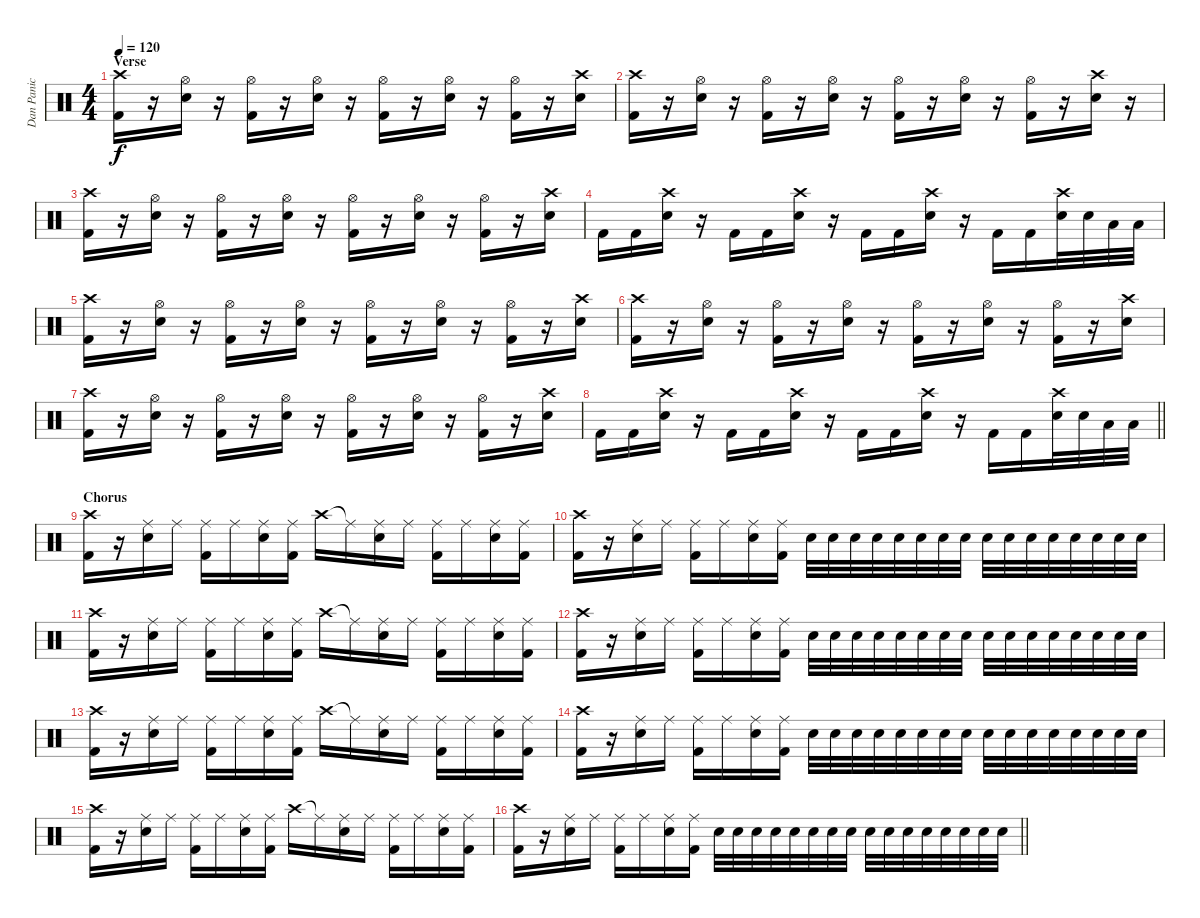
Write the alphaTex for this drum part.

\track ("Dan Panic" "Dan Panic") {instrument percussion}
\staff {score}
\articulation defaults
\ts (4 4)
\section ("" "Verse")
\tempo 120
\clef neutral
\ks c
("Crash high (hit)" "Kick (hit) 2").16{dy f} r.16 ("Hi-Hat (open)" "Electric Snare (hit)").16 r.16 ("Hi-Hat (open)" "Kick (hit) 2").16 r.16 ("Hi-Hat (open)" "Electric Snare (hit)").16 r.16 ("Hi-Hat (open)" "Kick (hit) 2").16 r.16 ("Hi-Hat (open)" "Electric Snare (hit)").16 r.16 ("Hi-Hat (open)" "Kick (hit) 2").16 r.16 ("Crash high (hit)" "Electric Snare (hit)").16 |
("Crash high (hit)" "Kick (hit) 2").16 r.16 ("Hi-Hat (open)" "Electric Snare (hit)").16 r.16 ("Hi-Hat (open)" "Kick (hit) 2").16 r.16 ("Hi-Hat (open)" "Electric Snare (hit)").16 r.16 ("Hi-Hat (open)" "Kick (hit) 2").16 r.16 ("Hi-Hat (open)" "Electric Snare (hit)").16 r.16 ("Hi-Hat (open)" "Kick (hit) 2").16 r.16 ("Crash high (hit)" "Electric Snare (hit)").16 r.16 |
("Crash high (hit)" "Kick (hit) 2").16 r.16 ("Hi-Hat (open)" "Electric Snare (hit)").16 r.16 ("Hi-Hat (open)" "Kick (hit) 2").16 r.16 ("Hi-Hat (open)" "Electric Snare (hit)").16 r.16 ("Hi-Hat (open)" "Kick (hit) 2").16 r.16 ("Hi-Hat (open)" "Electric Snare (hit)").16 r.16 ("Hi-Hat (open)" "Kick (hit) 2").16 r.16 ("Crash high (hit)" "Electric Snare (hit)").16 |
"Kick (hit) 2".16 "Kick (hit) 2".16 ("Crash high (hit)" "Electric Snare (hit)").16 r.16 "Kick (hit) 2".16 "Kick (hit) 2".16 ("Crash high (hit)" "Electric Snare (hit)").16 r.16 "Kick (hit) 2".16 "Kick (hit) 2".16 ("Crash high (hit)" "Electric Snare (hit)").16 r.16 "Kick (hit) 2".16 "Kick (hit) 2".16 ("Crash high (hit)" "Electric Snare (hit)").32 "Electric Snare (hit)".32 "Low Tom (hit)".32 "Low Tom (hit)".32 |
("Crash high (hit)" "Kick (hit) 2").16 r.16 ("Hi-Hat (open)" "Electric Snare (hit)").16 r.16 ("Hi-Hat (open)" "Kick (hit) 2").16 r.16 ("Hi-Hat (open)" "Electric Snare (hit)").16 r.16 ("Hi-Hat (open)" "Kick (hit) 2").16 r.16 ("Hi-Hat (open)" "Electric Snare (hit)").16 r.16 ("Hi-Hat (open)" "Kick (hit) 2").16 r.16 ("Crash high (hit)" "Electric Snare (hit)").16 |
("Crash high (hit)" "Kick (hit) 2").16 r.16 ("Hi-Hat (open)" "Electric Snare (hit)").16 r.16 ("Hi-Hat (open)" "Kick (hit) 2").16 r.16 ("Hi-Hat (open)" "Electric Snare (hit)").16 r.16 ("Hi-Hat (open)" "Kick (hit) 2").16 r.16 ("Hi-Hat (open)" "Electric Snare (hit)").16 r.16 ("Hi-Hat (open)" "Kick (hit) 2").16 r.16 ("Crash high (hit)" "Electric Snare (hit)").16 |
("Crash high (hit)" "Kick (hit) 2").16 r.16 ("Hi-Hat (open)" "Electric Snare (hit)").16 r.16 ("Hi-Hat (open)" "Kick (hit) 2").16 r.16 ("Hi-Hat (open)" "Electric Snare (hit)").16 r.16 ("Hi-Hat (open)" "Kick (hit) 2").16 r.16 ("Hi-Hat (open)" "Electric Snare (hit)").16 r.16 ("Hi-Hat (open)" "Kick (hit) 2").16 r.16 ("Crash high (hit)" "Electric Snare (hit)").16 |
\barLineRight lightlight "Kick (hit) 2".16 "Kick (hit) 2".16
("Crash high (hit)" "Electric Snare (hit)").16 r.16 "Kick (hit) 2".16 "Kick (hit) 2".16 ("Crash high (hit)" "Electric Snare (hit)").16 r.16 "Kick (hit) 2".16 "Kick (hit) 2".16 ("Crash high (hit)" "Electric Snare (hit)").16 r.16 "Kick (hit) 2".16 "Kick (hit) 2".16 ("Crash high (hit)" "Electric Snare (hit)").32 "Electric Snare (hit)".32 "Low Tom (hit)".32 "Low Tom (hit)".32 |
\section ("" "Chorus")
("Crash high (hit)" "Kick (hit) 2").16 r.16 ("Ride (middle)" "Electric Snare (hit)").16 "Ride (middle)".16 ("Ride (middle)" "Kick (hit) 2").16 "Ride (middle)".16 ("Ride (middle)" "Electric Snare (hit)").16 ("Ride (middle)" "Kick (hit) 2").16 "Crash high (hit)".16 "Ride (middle)"{t}.16 ("Ride (middle)" "Electric Snare (hit)").16 "Ride (middle)".16 ("Ride (middle)" "Kick (hit) 2").16 "Ride (middle)".16 ("Ride (middle)" "Electric Snare (hit)").16 ("Ride (middle)" "Kick (hit) 2").16 |
("Crash high (hit)" "Kick (hit) 2").16 r.16 ("Ride (middle)" "Electric Snare (hit)").16 "Ride (middle)".16 ("Ride (middle)" "Kick (hit) 2").16 "Ride (middle)".16 ("Ride (middle)" "Electric Snare (hit)").16 ("Ride (middle)" "Kick (hit) 2").16 "Electric Snare (hit)".32 "Electric Snare (hit)".32 "Electric Snare (hit)".32 "Electric Snare (hit)".32 "Electric Snare (hit)".32 "Electric Snare (hit)".32 "Electric Snare (hit)".32 "Electric Snare (hit)".32 "Electric Snare (hit)".32 "Electric Snare (hit)".32 "Electric Snare (hit)".32 "Electric Snare (hit)".32 "Electric Snare (hit)".32 "Electric Snare (hit)".32 "Electric Snare (hit)".32 "Electric Snare (hit)".32 |
("Crash high (hit)" "Kick (hit) 2").16 r.16 ("Ride (middle)" "Electric Snare (hit)").16 "Ride (middle)".16 ("Ride (middle)" "Kick (hit) 2").16 "Ride (middle)".16 ("Ride (middle)" "Electric Snare (hit)").16 ("Ride (middle)" "Kick (hit) 2").16 "Crash high (hit)".16 "Ride (middle)"{t}.16 ("Ride (middle)" "Electric Snare (hit)").16 "Ride (middle)".16 ("Ride (middle)" "Kick (hit) 2").16 "Ride (middle)".16 ("Ride (middle)" "Electric Snare (hit)").16 ("Ride (middle)" "Kick (hit) 2").16 |
("Crash high (hit)" "Kick (hit) 2").16 r.16 ("Ride (middle)" "Electric Snare (hit)").16 "Ride (middle)".16 ("Ride (middle)" "Kick (hit) 2").16 "Ride (middle)".16 ("Ride (middle)" "Electric Snare (hit)").16 ("Ride (middle)" "Kick (hit) 2").16 "Electric Snare (hit)".32 "Electric Snare (hit)".32 "Electric Snare (hit)".32 "Electric Snare (hit)".32 "Electric Snare (hit)".32 "Electric Snare (hit)".32 "Electric Snare (hit)".32 "Electric Snare (hit)".32 "Electric Snare (hit)".32 "Electric Snare (hit)".32 "Electric Snare (hit)".32 "Electric Snare (hit)".32 "Electric Snare (hit)".32 "Electric Snare (hit)".32 "Electric Snare (hit)".32 "Electric Snare (hit)".32 |
("Crash high (hit)" "Kick (hit) 2").16 r.16 ("Ride (middle)" "Electric Snare (hit)").16 "Ride (middle)".16 ("Ride (middle)" "Kick (hit) 2").16 "Ride (middle)".16 ("Ride (middle)" "Electric Snare (hit)").16 ("Ride (middle)" "Kick (hit) 2").16 "Crash high (hit)".16 "Ride (middle)"{t}.16 ("Ride (middle)" "Electric Snare (hit)").16 "Ride (middle)".16 ("Ride (middle)" "Kick (hit) 2").16 "Ride (middle)".16 ("Ride (middle)" "Electric Snare (hit)").16 ("Ride (middle)" "Kick (hit) 2").16 |
("Crash high (hit)" "Kick (hit) 2").16 r.16 ("Ride (middle)" "Electric Snare (hit)").16 "Ride (middle)".16 ("Ride (middle)" "Kick (hit) 2").16 "Ride (middle)".16 ("Ride (middle)" "Electric Snare (hit)").16 ("Ride (middle)" "Kick (hit) 2").16 "Electric Snare (hit)".32 "Electric Snare (hit)".32 "Electric Snare (hit)".32 "Electric Snare (hit)".32 "Electric Snare (hit)".32 "Electric Snare (hit)".32 "Electric Snare (hit)".32 "Electric Snare (hit)".32 "Electric Snare (hit)".32 "Electric Snare (hit)".32 "Electric Snare (hit)".32 "Electric Snare (hit)".32 "Electric Snare (hit)".32 "Electric Snare (hit)".32 "Electric Snare (hit)".32 "Electric Snare (hit)".32 |
("Crash high (hit)" "Kick (hit) 2").16 r.16 ("Ride (middle)" "Electric Snare (hit)").16 "Ride (middle)".16 ("Ride (middle)" "Kick (hit) 2").16 "Ride (middle)".16 ("Ride (middle)" "Electric Snare (hit)").16 ("Ride (middle)" "Kick (hit) 2").16 "Crash high (hit)".16 "Ride (middle)"{t}.16 ("Ride (middle)" "Electric Snare (hit)").16 "Ride (middle)".16 ("Ride (middle)" "Kick (hit) 2").16 "Ride (middle)".16 ("Ride (middle)" "Electric Snare (hit)").16 ("Ride (middle)" "Kick (hit) 2").16 |
\barLineRight lightlight
("Crash high (hit)" "Kick (hit) 2").16 r.16 ("Ride (middle)" "Electric Snare (hit)").16 "Ride (middle)".16 ("Ride (middle)" "Kick (hit) 2").16 "Ride (middle)".16 ("Ride (middle)" "Electric Snare (hit)").16 ("Ride (middle)" "Kick (hit) 2").16 "Electric Snare (hit)".32 "Electric Snare (hit)".32 "Electric Snare (hit)".32 "Electric Snare (hit)".32 "Electric Snare (hit)".32 "Electric Snare (hit)".32 "Electric Snare (hit)".32 "Electric Snare (hit)".32 "Electric Snare (hit)".32 "Electric Snare (hit)".32 "Electric Snare (hit)".32 "Electric Snare (hit)".32 "Electric Snare (hit)".32 "Electric Snare (hit)".32 "Electric Snare (hit)".32 "Electric Snare (hit)".32
